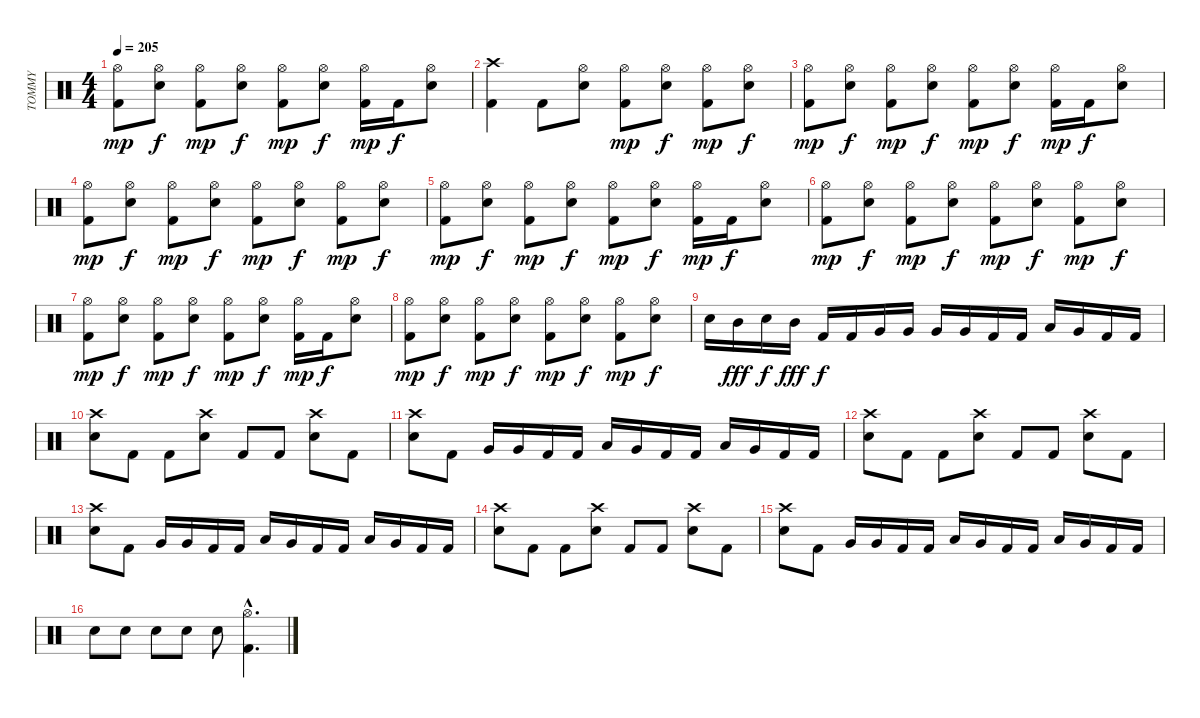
\track ("TOMMY" "TOMMY") {instrument percussion}
\staff {score}
\articulation defaults
\ts (4 4)
\tempo 205
\clef neutral
\ks c
("Kick (hit) 2" "Hi-Hat (open)").8{dy mp} ("Snare (hit) 2" "Hi-Hat (open)").8{dy f} ("Kick (hit) 2" "Hi-Hat (open)").8{dy mp} ("Snare (hit) 2" "Hi-Hat (open)").8{dy f} ("Kick (hit) 2" "Hi-Hat (open)").8{dy mp} ("Snare (hit) 2" "Hi-Hat (open)").8{dy f} ("Kick (hit) 2" "Hi-Hat (open)").16{dy mp} "Kick (hit) 2".16{dy f} ("Snare (hit) 2" "Hi-Hat (open)").8 |
("Kick (hit) 2" "Crash high (hit)").4 "Kick (hit) 2".8 ("Snare (hit) 2" "Hi-Hat (open)").8 ("Kick (hit) 2" "Hi-Hat (open)").8{dy mp} ("Snare (hit) 2" "Hi-Hat (open)").8{dy f} ("Kick (hit) 2" "Hi-Hat (open)").8{dy mp} ("Snare (hit) 2" "Hi-Hat (open)").8{dy f} |
("Kick (hit) 2" "Hi-Hat (open)").8{dy mp} ("Snare (hit) 2" "Hi-Hat (open)").8{dy f} ("Kick (hit) 2" "Hi-Hat (open)").8{dy mp} ("Snare (hit) 2" "Hi-Hat (open)").8{dy f} ("Kick (hit) 2" "Hi-Hat (open)").8{dy mp} ("Snare (hit) 2" "Hi-Hat (open)").8{dy f} ("Kick (hit) 2" "Hi-Hat (open)").16{dy mp} "Kick (hit) 2".16{dy f} ("Snare (hit) 2" "Hi-Hat (open)").8 |
("Kick (hit) 2" "Hi-Hat (open)").8{dy mp} ("Snare (hit) 2" "Hi-Hat (open)").8{dy f} ("Kick (hit) 2" "Hi-Hat (open)").8{dy mp} ("Snare (hit) 2" "Hi-Hat (open)").8{dy f} ("Kick (hit) 2" "Hi-Hat (open)").8{dy mp} ("Snare (hit) 2" "Hi-Hat (open)").8{dy f} ("Kick (hit) 2" "Hi-Hat (open)").8{dy mp} ("Snare (hit) 2" "Hi-Hat (open)").8{dy f} |
("Kick (hit) 2" "Hi-Hat (open)").8{dy mp} ("Snare (hit) 2" "Hi-Hat (open)").8{dy f} ("Kick (hit) 2" "Hi-Hat (open)").8{dy mp} ("Snare (hit) 2" "Hi-Hat (open)").8{dy f} ("Kick (hit) 2" "Hi-Hat (open)").8{dy mp} ("Snare (hit) 2" "Hi-Hat (open)").8{dy f} ("Kick (hit) 2" "Hi-Hat (open)").16{dy mp} "Kick (hit) 2".16{dy f} ("Snare (hit) 2" "Hi-Hat (open)").8 |
("Kick (hit) 2" "Hi-Hat (open)").8{dy mp} ("Snare (hit) 2" "Hi-Hat (open)").8{dy f} ("Kick (hit) 2" "Hi-Hat (open)").8{dy mp} ("Snare (hit) 2" "Hi-Hat (open)").8{dy f} ("Kick (hit) 2" "Hi-Hat (open)").8{dy mp} ("Snare (hit) 2" "Hi-Hat (open)").8{dy f} ("Kick (hit) 2" "Hi-Hat (open)").8{dy mp} ("Snare (hit) 2" "Hi-Hat (open)").8{dy f} |
("Kick (hit) 2" "Hi-Hat (open)").8{dy mp} ("Snare (hit) 2" "Hi-Hat (open)").8{dy f} ("Kick (hit) 2" "Hi-Hat (open)").8{dy mp} ("Snare (hit) 2" "Hi-Hat (open)").8{dy f} ("Kick (hit) 2" "Hi-Hat (open)").8{dy mp} ("Snare (hit) 2" "Hi-Hat (open)").8{dy f} ("Kick (hit) 2" "Hi-Hat (open)").16{dy mp} "Kick (hit) 2".16{dy f} ("Snare (hit) 2" "Hi-Hat (open)").8 |
("Kick (hit) 2" "Hi-Hat (open)").8{dy mp} ("Snare (hit) 2" "Hi-Hat (open)").8{dy f} ("Kick (hit) 2" "Hi-Hat (open)").8{dy mp} ("Snare (hit) 2" "Hi-Hat (open)").8{dy f} ("Kick (hit) 2" "Hi-Hat (open)").8{dy mp} ("Snare (hit) 2" "Hi-Hat (open)").8{dy f} ("Kick (hit) 2" "Hi-Hat (open)").8{dy mp} ("Snare (hit) 2" "Hi-Hat (open)").8{dy f} |
"Snare (hit) 2".16 "Mid Tom (hit)".16{dy fff} "Snare (hit) 2".16{dy f} "Mid Tom (hit)".16{dy fff} "Kick (hit) 2".16{dy f} "Kick (hit) 2".16 "Very Low Tom (hit)".16 "Very Low Tom (hit)".16 "Very Low Tom (hit)".16 "Very Low Tom (hit)".16 "Kick (hit) 2".16 "Kick (hit) 2".16 "Low Floor Tom (hit)".16 "Very Low Tom (hit)".16 "Kick (hit) 2".16 "Kick (hit) 2".16 |
("Snare (hit) 2" "Crash high (hit)").8 "Kick (hit) 2".8 "Kick (hit) 2".8 ("Snare (hit) 2" "Crash high (hit)").8 "Kick (hit) 2".8 "Kick (hit) 2".8 ("Snare (hit) 2" "Crash high (hit)").8 "Kick (hit) 2".8 |
("Snare (hit) 2" "Crash high (hit)").8 "Kick (hit) 2".8 "Very Low Tom (hit)".16 "Very Low Tom (hit)".16 "Kick (hit) 2".16 "Kick (hit) 2".16 "Low Floor Tom (hit)".16 "Very Low Tom (hit)".16 "Kick (hit) 2".16 "Kick (hit) 2".16 "Low Floor Tom (hit)".16 "Very Low Tom (hit)".16 "Kick (hit) 2".16 "Kick (hit) 2".16 |
("Snare (hit) 2" "Crash high (hit)").8 "Kick (hit) 2".8 "Kick (hit) 2".8 ("Snare (hit) 2" "Crash high (hit)").8 "Kick (hit) 2".8 "Kick (hit) 2".8 ("Snare (hit) 2" "Crash high (hit)").8 "Kick (hit) 2".8 |
("Snare (hit) 2" "Crash high (hit)").8 "Kick (hit) 2".8 "Very Low Tom (hit)".16 "Very Low Tom (hit)".16 "Kick (hit) 2".16 "Kick (hit) 2".16 "Low Floor Tom (hit)".16 "Very Low Tom (hit)".16 "Kick (hit) 2".16 "Kick (hit) 2".16 "Low Floor Tom (hit)".16 "Very Low Tom (hit)".16 "Kick (hit) 2".16 "Kick (hit) 2".16 |
("Snare (hit) 2" "Crash high (hit)").8 "Kick (hit) 2".8 "Kick (hit) 2".8 ("Snare (hit) 2" "Crash high (hit)").8 "Kick (hit) 2".8 "Kick (hit) 2".8 ("Snare (hit) 2" "Crash high (hit)").8 "Kick (hit) 2".8 |
("Snare (hit) 2" "Crash high (hit)").8 "Kick (hit) 2".8 "Very Low Tom (hit)".16 "Very Low Tom (hit)".16 "Kick (hit) 2".16 "Kick (hit) 2".16 "Low Floor Tom (hit)".16 "Very Low Tom (hit)".16 "Kick (hit) 2".16 "Kick (hit) 2".16 "Low Floor Tom (hit)".16 "Very Low Tom (hit)".16 "Kick (hit) 2".16 "Kick (hit) 2".16 |
"Snare (hit) 2".8 "Snare (hit) 2".8 "Snare (hit) 2".8 "Snare (hit) 2".8 "Snare (hit) 2".8 ("Kick (hit) 2"{hac} "Hi-Hat (open)"{hac}).4{d}
